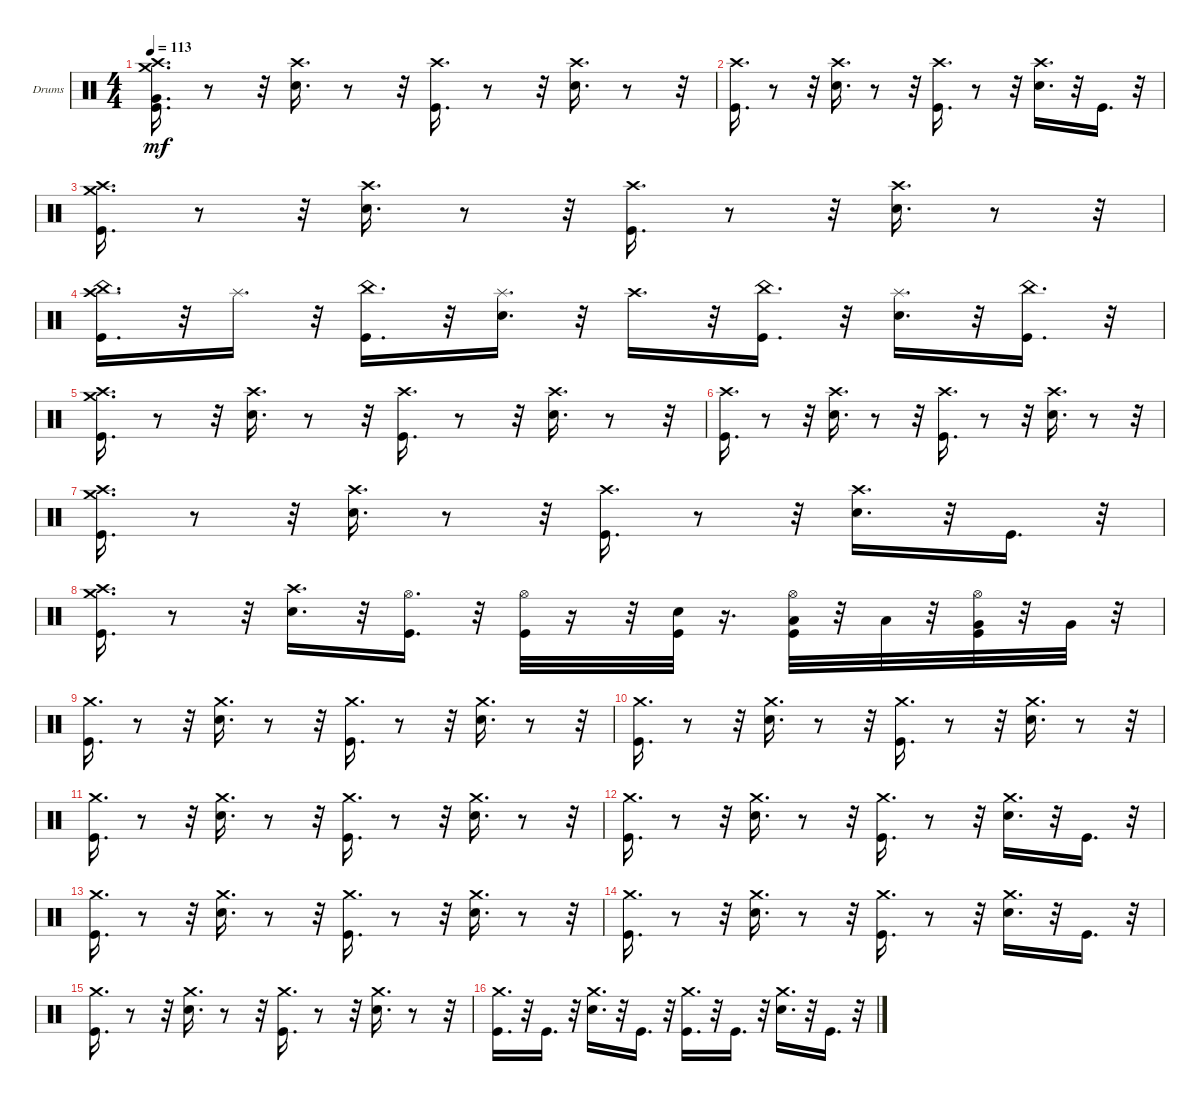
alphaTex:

\bracketExtendMode groupsimilarinstruments
\firstSystemTrackNameOrientation horizontal
\otherSystemsTrackNameOrientation horizontal
\track ("Drumkit" "Drums") {instrument percussion}
\staff {score}
\articulation defaults
\ts (4 4)
\tempo 113
\clef neutral
\ks c
("Crash medium (hit)" "Kick (hit)" "Very Low Tom (hit)" "Crash high (hit)").16{d dy mf} r.8 r.32 ("Crash high (hit)" "Snare (hit) 2").16{d} r.8 r.32 ("Crash high (hit)" "Kick (hit)").16{d} r.8 r.32 ("Crash high (hit)" "Snare (hit) 2").16{d} r.8 r.32 |
("Crash high (hit)" "Kick (hit)").16{d} r.8 r.32 ("Crash high (hit)" "Snare (hit) 2").16{d} r.8 r.32 ("Crash high (hit)" "Kick (hit)").16{d} r.8 r.32 ("Crash high (hit)" "Snare (hit) 2").16{d} r.32 "Kick (hit)".16{d} r.32 |
("Crash high (hit)" "Kick (hit)" "Crash medium (hit)").16{d} r.8 r.32 ("Crash high (hit)" "Snare (hit) 2").16{d} r.8 r.32 ("Crash high (hit)" "Kick (hit)").16{d} r.8 r.32 ("Crash high (hit)" "Snare (hit) 2").16{d} r.8 r.32 |
("Crash high (hit)" "China (hit)" "Kick (hit)").16{d} r.32 "Splash (hit)".16{d} r.32 ("China (hit)" "Kick (hit)").16{d} r.32 ("Splash (hit)" "Snare (hit) 2").16{d} r.32 "Crash high (hit)".16{d} r.32 ("China (hit)" "Kick (hit)").16{d} r.32 ("Splash (hit)" "Snare (hit) 2").16{d} r.32 ("China (hit)" "Kick (hit)").16{d} r.32 |
("Crash high (hit)" "Kick (hit)" "Crash medium (hit)").16{d} r.8 r.32 ("Crash high (hit)" "Snare (hit) 2").16{d} r.8 r.32 ("Crash high (hit)" "Kick (hit)").16{d} r.8 r.32 ("Crash high (hit)" "Snare (hit) 2").16{d} r.8 r.32 |
("Crash high (hit)" "Kick (hit)").16{d} r.8 r.32 ("Crash high (hit)" "Snare (hit) 2").16{d} r.8 r.32 ("Crash high (hit)" "Kick (hit)").16{d} r.8 r.32 ("Crash high (hit)" "Snare (hit) 2").16{d} r.8 r.32 |
("Crash medium (hit)" "Crash high (hit)" "Kick (hit)").16{d} r.8 r.32 ("Crash high (hit)" "Snare (hit) 2").16{d} r.8 r.32 ("Crash high (hit)" "Kick (hit)").16{d} r.8 r.32 ("Crash high (hit)" "Snare (hit) 2").16{d} r.32 "Kick (hit)".16{d} r.32 |
("Crash medium (hit)" "Crash high (hit)" "Kick (hit)").16{d} r.8 r.32 ("Crash high (hit)" "Snare (hit) 2").16{d} r.32 ("Hi-Hat (open)" "Kick (hit)").16{d} r.32 ("Hi-Hat (open)" "Kick (hit)").32 r.16 r.32 ("Snare (hit) 2" "Kick (hit)").32 r.16{d} ("Low Tom (hit)" "Hi-Hat (open)" "Kick (hit)").32 r.32 "Low Tom (hit)".32 r.32 ("Very Low Tom (hit)" "Hi-Hat (open)" "Kick (hit)").32 r.32 "Very Low Tom (hit)".32 r.32 |
("Crash medium (hit)" "Kick (hit)").16{d} r.8 r.32 ("Snare (hit) 2" "Crash medium (hit)").16{d} r.8 r.32 ("Kick (hit)" "Crash medium (hit)").16{d} r.8 r.32 ("Snare (hit) 2" "Crash medium (hit)").16{d} r.8 r.32 |
("Kick (hit)" "Crash medium (hit)").16{d} r.8 r.32 ("Snare (hit) 2" "Crash medium (hit)").16{d} r.8 r.32 ("Kick (hit)" "Crash medium (hit)").16{d} r.8 r.32 ("Snare (hit) 2" "Crash medium (hit)").16{d} r.8 r.32 |
("Kick (hit)" "Crash medium (hit)").16{d} r.8 r.32 ("Snare (hit) 2" "Crash medium (hit)").16{d} r.8 r.32 ("Kick (hit)" "Crash medium (hit)").16{d} r.8 r.32 ("Snare (hit) 2" "Crash medium (hit)").16{d} r.8 r.32 |
("Kick (hit)" "Crash medium (hit)").16{d} r.8 r.32 ("Snare (hit) 2" "Crash medium (hit)").16{d} r.8 r.32 ("Kick (hit)" "Crash medium (hit)").16{d} r.8 r.32 ("Snare (hit) 2" "Crash medium (hit)").16{d} r.32 "Kick (hit)".16{d} r.32 |
("Crash medium (hit)" "Kick (hit)").16{d} r.8 r.32 ("Snare (hit) 2" "Crash medium (hit)").16{d} r.8 r.32 ("Kick (hit)" "Crash medium (hit)").16{d} r.8 r.32 ("Snare (hit) 2" "Crash medium (hit)").16{d} r.8 r.32 |
("Kick (hit)" "Crash medium (hit)").16{d} r.8 r.32 ("Snare (hit) 2" "Crash medium (hit)").16{d} r.8 r.32 ("Kick (hit)" "Crash medium (hit)").16{d} r.8 r.32 ("Snare (hit) 2" "Crash medium (hit)").16{d} r.32 "Kick (hit)".16{d} r.32 |
("Kick (hit)" "Crash medium (hit)").16{d} r.8 r.32 ("Snare (hit) 2" "Crash medium (hit)").16{d} r.8 r.32 ("Kick (hit)" "Crash medium (hit)").16{d} r.8 r.32 ("Snare (hit) 2" "Crash medium (hit)").16{d} r.8 r.32 |
("Kick (hit)" "Crash medium (hit)").16{d} r.32 "Kick (hit)".16{d} r.32 ("Snare (hit) 2" "Crash medium (hit)").16{d} r.32 "Kick (hit)".16{d} r.32 ("Kick (hit)" "Crash medium (hit)").16{d} r.32 "Kick (hit)".16{d} r.32 ("Snare (hit) 2" "Crash medium (hit)").16{d} r.32 "Kick (hit)".16{d} r.32
